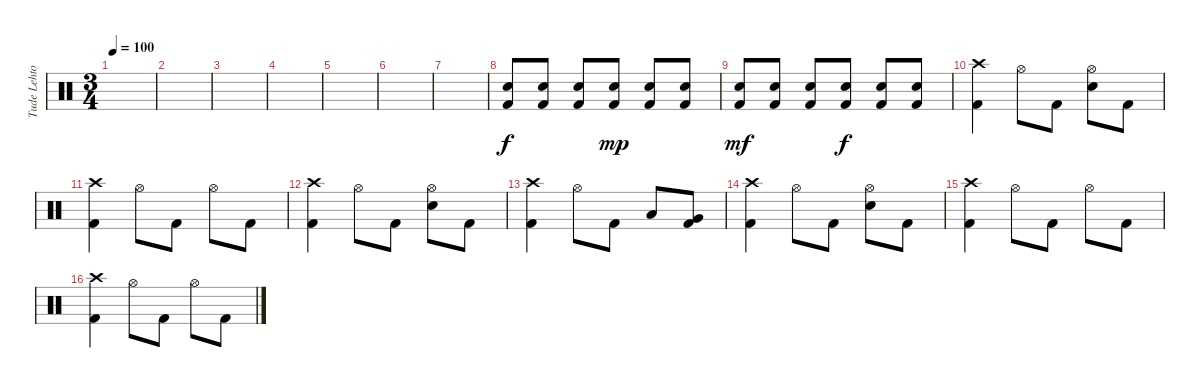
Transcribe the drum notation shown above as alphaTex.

\track ("Tude Lehtonen" "Tude Lehto") {instrument percussion}
\staff {score}
\articulation defaults
\ts (3 4)
\tempo 100
\clef neutral
\ks c
|
|
|
|
|
|
|
("Electric Snare (hit)" "Kick (hit) 2").8 ("Electric Snare (hit)" "Kick (hit) 2").8 ("Electric Snare (hit)" "Kick (hit) 2").8 ("Electric Snare (hit)" "Kick (hit) 2").8{dy mp} ("Electric Snare (hit)" "Kick (hit) 2").8 ("Electric Snare (hit)" "Kick (hit) 2").8 |
("Electric Snare (hit)" "Kick (hit) 2").8{dy mf} ("Electric Snare (hit)" "Kick (hit) 2").8 ("Electric Snare (hit)" "Kick (hit) 2").8 ("Electric Snare (hit)" "Kick (hit) 2").8{dy f} ("Electric Snare (hit)" "Kick (hit) 2").8 ("Electric Snare (hit)" "Kick (hit) 2").8 |
("Crash high (hit)" "Kick (hit) 2").4 "Hi-Hat (open)".8 "Kick (hit) 2".8 ("Hi-Hat (open)" "Electric Snare (hit)").8 "Kick (hit) 2".8 |
("Crash high (hit)" "Kick (hit) 2").4 "Hi-Hat (open)".8 "Kick (hit) 2".8 "Hi-Hat (open)".8 "Kick (hit) 2".8 |
("Crash high (hit)" "Kick (hit) 2").4 "Hi-Hat (open)".8 "Kick (hit) 2".8 ("Hi-Hat (open)" "Electric Snare (hit)").8 "Kick (hit) 2".8 |
("Crash high (hit)" "Kick (hit) 2").4 "Hi-Hat (open)".8 "Kick (hit) 2".8 "Low Tom (hit)".8 ("Very Low Tom (hit)" "Kick (hit) 2").8 |
("Crash high (hit)" "Kick (hit) 2").4 "Hi-Hat (open)".8 "Kick (hit) 2".8 ("Hi-Hat (open)" "Electric Snare (hit)").8 "Kick (hit) 2".8 |
("Crash high (hit)" "Kick (hit) 2").4 "Hi-Hat (open)".8 "Kick (hit) 2".8 "Hi-Hat (open)".8 "Kick (hit) 2".8 |
("Crash high (hit)" "Kick (hit) 2").4 "Hi-Hat (open)".8 "Kick (hit) 2".8 "Hi-Hat (open)".8 "Kick (hit) 2".8
